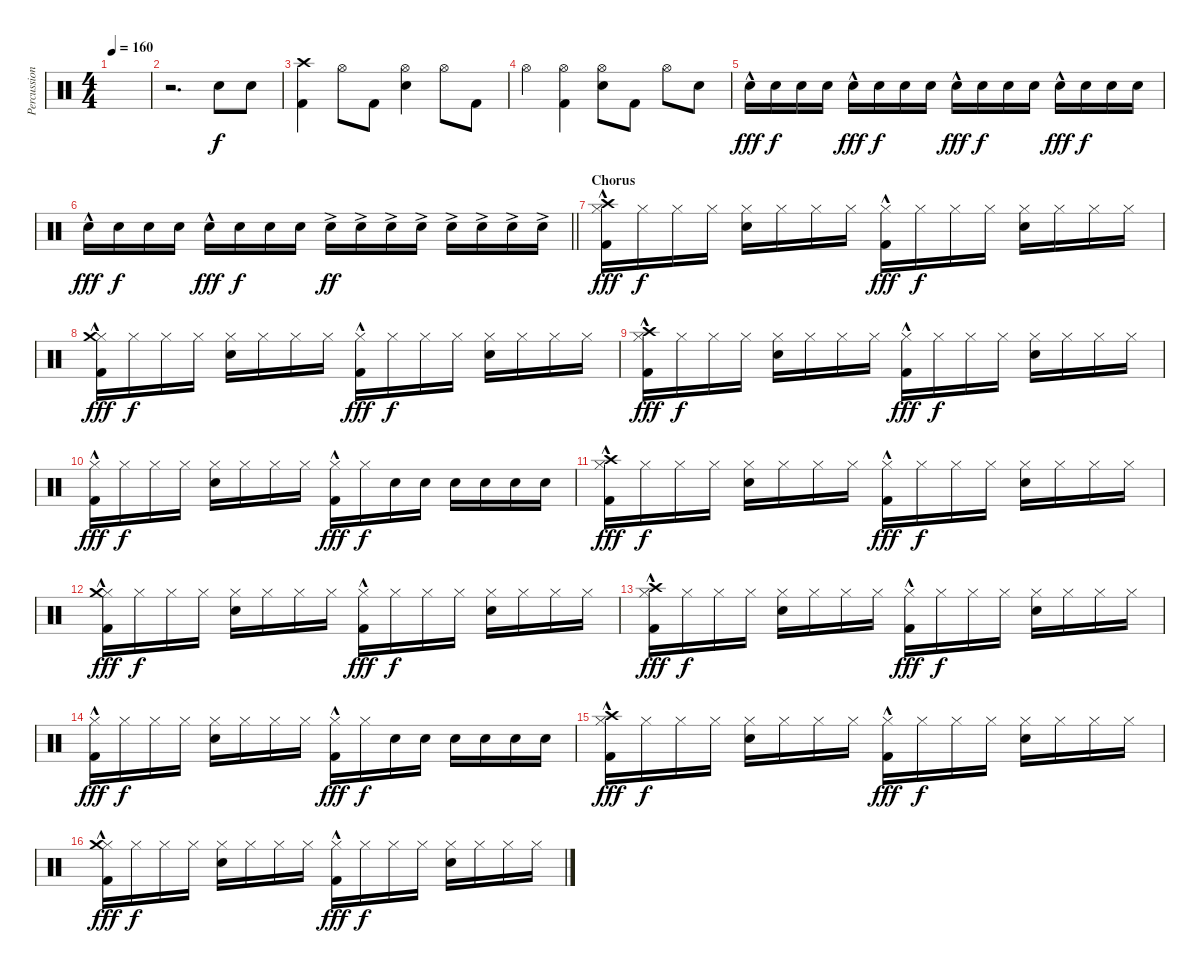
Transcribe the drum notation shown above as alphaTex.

\track ("Percussion" "Percussion") {instrument percussion}
\staff {score}
\articulation defaults
\ts (4 4)
\tempo 160
\clef neutral
\ks c
|
r.2{d} "Snare (hit) 2".8 "Snare (hit) 2".8 |
("Crash high (hit)" "Kick (hit) 2").4 "Hi-Hat (open)".8 "Kick (hit) 2".8 ("Hi-Hat (open)" "Snare (hit) 2").4 "Hi-Hat (open)".8 "Kick (hit) 2".8 |
"Hi-Hat (open)".4 ("Hi-Hat (open)" "Kick (hit) 2").4 ("Hi-Hat (open)" "Snare (hit) 2").8 "Kick (hit) 2".8 "Hi-Hat (open)".8 "Snare (hit) 2".8 |
"Snare (hit) 2"{hac}.16{dy fff} "Snare (hit) 2".16{dy f} "Snare (hit) 2".16 "Snare (hit) 2".16 "Snare (hit) 2"{hac}.16{dy fff} "Snare (hit) 2".16{dy f} "Snare (hit) 2".16 "Snare (hit) 2".16 "Snare (hit) 2"{hac}.16{dy fff} "Snare (hit) 2".16{dy f} "Snare (hit) 2".16 "Snare (hit) 2".16 "Snare (hit) 2"{hac}.16{dy fff} "Snare (hit) 2".16{dy f} "Snare (hit) 2".16 "Snare (hit) 2".16 |
\barLineRight lightlight "Snare (hit) 2"{hac}.16{dy fff} "Snare (hit) 2".16{dy f} "Snare (hit) 2".16 "Snare (hit) 2".16 "Snare (hit) 2"{hac}.16{dy fff} "Snare (hit) 2".16{dy f} "Snare (hit) 2".16 "Snare (hit) 2".16 "Snare (hit) 2"{ac}.16{dy ff} "Snare (hit) 2"{ac}.16 "Snare (hit) 2"{ac}.16 "Snare (hit) 2"{ac}.16 "Snare (hit) 2"{ac}.16 "Snare (hit) 2"{ac}.16 "Snare (hit) 2"{ac}.16 "Snare (hit) 2"{ac}.16
|
\section ("" "Chorus")
("Hi-Hat (closed)"{hac} "Crash high (hit)" "Kick (hit) 2").16{dy fff} "Hi-Hat (closed)".16{dy f} "Hi-Hat (closed)".16 "Hi-Hat (closed)".16 ("Hi-Hat (closed)" "Snare (hit) 2").16 "Hi-Hat (closed)".16 "Hi-Hat (closed)".16 "Hi-Hat (closed)".16 ("Hi-Hat (closed)"{hac} "Kick (hit) 2").16{dy fff} "Hi-Hat (closed)".16{dy f} "Hi-Hat (closed)".16 "Hi-Hat (closed)".16 ("Hi-Hat (closed)" "Snare (hit) 2").16 "Hi-Hat (closed)".16 "Hi-Hat (closed)".16 "Hi-Hat (closed)".16 |
("Hi-Hat (closed)"{hac} "Crash medium (hit)" "Kick (hit) 2").16{dy fff} "Hi-Hat (closed)".16{dy f} "Hi-Hat (closed)".16 "Hi-Hat (closed)".16 ("Hi-Hat (closed)" "Snare (hit) 2").16 "Hi-Hat (closed)".16 "Hi-Hat (closed)".16 "Hi-Hat (closed)".16 ("Hi-Hat (closed)"{hac} "Kick (hit) 2").16{dy fff} "Hi-Hat (closed)".16{dy f} "Hi-Hat (closed)".16 "Hi-Hat (closed)".16 ("Hi-Hat (closed)" "Snare (hit) 2").16 "Hi-Hat (closed)".16 "Hi-Hat (closed)".16 "Hi-Hat (closed)".16 |
("Hi-Hat (closed)"{hac} "Crash high (hit)" "Kick (hit) 2").16{dy fff} "Hi-Hat (closed)".16{dy f} "Hi-Hat (closed)".16 "Hi-Hat (closed)".16 ("Hi-Hat (closed)" "Snare (hit) 2").16 "Hi-Hat (closed)".16 "Hi-Hat (closed)".16 "Hi-Hat (closed)".16 ("Hi-Hat (closed)"{hac} "Kick (hit) 2").16{dy fff} "Hi-Hat (closed)".16{dy f} "Hi-Hat (closed)".16 "Hi-Hat (closed)".16 ("Hi-Hat (closed)" "Snare (hit) 2").16 "Hi-Hat (closed)".16 "Hi-Hat (closed)".16 "Hi-Hat (closed)".16 |
("Hi-Hat (closed)"{hac} "Kick (hit) 2").16{dy fff} "Hi-Hat (closed)".16{dy f} "Hi-Hat (closed)".16 "Hi-Hat (closed)".16 ("Hi-Hat (closed)" "Snare (hit) 2").16 "Hi-Hat (closed)".16 "Hi-Hat (closed)".16 "Hi-Hat (closed)".16 ("Hi-Hat (closed)"{hac} "Kick (hit) 2").16{dy fff} "Hi-Hat (closed)".16{dy f} "Snare (hit) 2".16 "Snare (hit) 2".16 "Snare (hit) 2".16 "Snare (hit) 2".16 "Snare (hit) 2".16 "Snare (hit) 2".16 |
("Hi-Hat (closed)"{hac} "Crash high (hit)" "Kick (hit) 2").16{dy fff} "Hi-Hat (closed)".16{dy f} "Hi-Hat (closed)".16 "Hi-Hat (closed)".16 ("Hi-Hat (closed)" "Snare (hit) 2").16 "Hi-Hat (closed)".16 "Hi-Hat (closed)".16 "Hi-Hat (closed)".16 ("Hi-Hat (closed)"{hac} "Kick (hit) 2").16{dy fff} "Hi-Hat (closed)".16{dy f} "Hi-Hat (closed)".16 "Hi-Hat (closed)".16 ("Hi-Hat (closed)" "Snare (hit) 2").16 "Hi-Hat (closed)".16 "Hi-Hat (closed)".16 "Hi-Hat (closed)".16 |
("Hi-Hat (closed)"{hac} "Crash medium (hit)" "Kick (hit) 2").16{dy fff} "Hi-Hat (closed)".16{dy f} "Hi-Hat (closed)".16 "Hi-Hat (closed)".16 ("Hi-Hat (closed)" "Snare (hit) 2").16 "Hi-Hat (closed)".16 "Hi-Hat (closed)".16 "Hi-Hat (closed)".16 ("Hi-Hat (closed)"{hac} "Kick (hit) 2").16{dy fff} "Hi-Hat (closed)".16{dy f} "Hi-Hat (closed)".16 "Hi-Hat (closed)".16 ("Hi-Hat (closed)" "Snare (hit) 2").16 "Hi-Hat (closed)".16 "Hi-Hat (closed)".16 "Hi-Hat (closed)".16 |
("Hi-Hat (closed)"{hac} "Crash high (hit)" "Kick (hit) 2").16{dy fff} "Hi-Hat (closed)".16{dy f} "Hi-Hat (closed)".16 "Hi-Hat (closed)".16 ("Hi-Hat (closed)" "Snare (hit) 2").16 "Hi-Hat (closed)".16 "Hi-Hat (closed)".16 "Hi-Hat (closed)".16 ("Hi-Hat (closed)"{hac} "Kick (hit) 2").16{dy fff} "Hi-Hat (closed)".16{dy f} "Hi-Hat (closed)".16 "Hi-Hat (closed)".16 ("Hi-Hat (closed)" "Snare (hit) 2").16 "Hi-Hat (closed)".16 "Hi-Hat (closed)".16 "Hi-Hat (closed)".16 |
("Hi-Hat (closed)"{hac} "Kick (hit) 2").16{dy fff} "Hi-Hat (closed)".16{dy f} "Hi-Hat (closed)".16 "Hi-Hat (closed)".16 ("Hi-Hat (closed)" "Snare (hit) 2").16 "Hi-Hat (closed)".16 "Hi-Hat (closed)".16 "Hi-Hat (closed)".16 ("Hi-Hat (closed)"{hac} "Kick (hit) 2").16{dy fff} "Hi-Hat (closed)".16{dy f} "Snare (hit) 2".16 "Snare (hit) 2".16 "Snare (hit) 2".16 "Snare (hit) 2".16 "Snare (hit) 2".16 "Snare (hit) 2".16 |
("Hi-Hat (closed)"{hac} "Crash high (hit)" "Kick (hit) 2").16{dy fff} "Hi-Hat (closed)".16{dy f} "Hi-Hat (closed)".16 "Hi-Hat (closed)".16 ("Hi-Hat (closed)" "Snare (hit) 2").16 "Hi-Hat (closed)".16 "Hi-Hat (closed)".16 "Hi-Hat (closed)".16 ("Hi-Hat (closed)"{hac} "Kick (hit) 2").16{dy fff} "Hi-Hat (closed)".16{dy f} "Hi-Hat (closed)".16 "Hi-Hat (closed)".16 ("Hi-Hat (closed)" "Snare (hit) 2").16 "Hi-Hat (closed)".16 "Hi-Hat (closed)".16 "Hi-Hat (closed)".16 |
("Hi-Hat (closed)"{hac} "Crash medium (hit)" "Kick (hit) 2").16{dy fff} "Hi-Hat (closed)".16{dy f} "Hi-Hat (closed)".16 "Hi-Hat (closed)".16 ("Hi-Hat (closed)" "Snare (hit) 2").16 "Hi-Hat (closed)".16 "Hi-Hat (closed)".16 "Hi-Hat (closed)".16 ("Hi-Hat (closed)"{hac} "Kick (hit) 2").16{dy fff} "Hi-Hat (closed)".16{dy f} "Hi-Hat (closed)".16 "Hi-Hat (closed)".16 ("Hi-Hat (closed)" "Snare (hit) 2").16 "Hi-Hat (closed)".16 "Hi-Hat (closed)".16 "Hi-Hat (closed)".16
